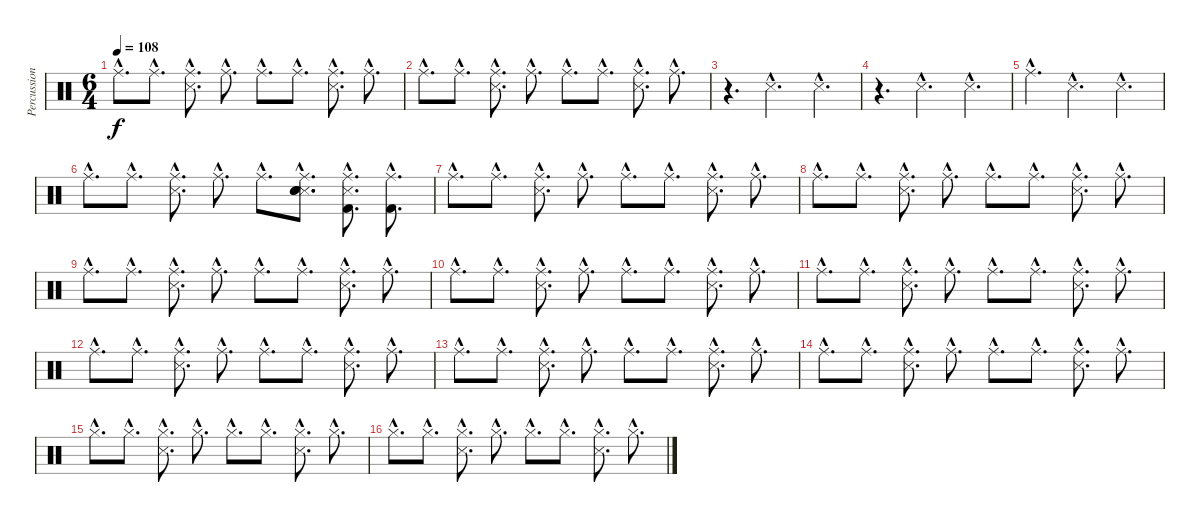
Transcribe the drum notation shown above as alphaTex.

\track ("Percussion" "Percussion") {instrument percussion}
\staff {score}
\articulation defaults
\ts (6 4)
\tempo 108
\clef neutral
\ks c "Ride (middle)"{hac}.8{d dy f} "Ride (middle)"{hac}.8{d}
("Ride (middle)"{hac} "Snare (side stick) 3"{hac}).8{d} "Ride (middle)"{hac}.8{d} "Ride (middle)"{hac}.8{d} "Ride (middle)"{hac}.8{d} ("Ride (middle)"{hac} "Snare (side stick) 3"{hac}).8{d} "Ride (middle)"{hac}.8{d} |
"Ride (middle)"{hac}.8{d} "Ride (middle)"{hac}.8{d} ("Ride (middle)"{hac} "Snare (side stick) 3"{hac}).8{d} "Ride (middle)"{hac}.8{d} "Ride (middle)"{hac}.8{d} "Ride (middle)"{hac}.8{d} ("Ride (middle)"{hac} "Snare (side stick) 3"{hac}).8{d} "Ride (middle)"{hac}.8{d} |
r.4{d} "Snare (side stick) 3"{hac}.2{d} "Snare (side stick) 3"{hac}.4{d} |
r.4{d} "Snare (side stick) 3"{hac}.2{d} "Snare (side stick) 3"{hac}.4{d} |
"Ride (middle)"{hac}.4{d} "Snare (side stick) 3"{hac}.2{d} "Snare (side stick) 3"{hac}.4{d} |
"Ride (middle)"{hac}.8{d} "Ride (middle)"{hac}.8{d} ("Ride (middle)"{hac} "Snare (side stick) 3"{hac}).8{d} "Ride (middle)"{hac}.8{d} "Ride (middle)"{hac}.8{d} ("Ride (middle)"{hac} "Snare (side stick) 3"{hac} "Snare (hit) 2"{hac} "Electric Snare (hit)"{hac}).8{d} ("Ride (middle)"{hac} "Snare (side stick) 3"{hac} "Kick (hit) 2"{hac}).8{d} ("Ride (middle)"{hac} "Kick (hit) 2"{hac}).8{d} |
"Ride (middle)"{hac}.8{d} "Ride (middle)"{hac}.8{d} ("Ride (middle)"{hac} "Snare (side stick) 3"{hac}).8{d} "Ride (middle)"{hac}.8{d} "Ride (middle)"{hac}.8{d} "Ride (middle)"{hac}.8{d} ("Ride (middle)"{hac} "Snare (side stick) 3"{hac}).8{d} "Ride (middle)"{hac}.8{d} |
"Ride (middle)"{hac}.8{d} "Ride (middle)"{hac}.8{d} ("Ride (middle)"{hac} "Snare (side stick) 3"{hac}).8{d} "Ride (middle)"{hac}.8{d} "Ride (middle)"{hac}.8{d} "Ride (middle)"{hac}.8{d} ("Ride (middle)"{hac} "Snare (side stick) 3"{hac}).8{d} "Ride (middle)"{hac}.8{d} |
"Ride (middle)"{hac}.8{d} "Ride (middle)"{hac}.8{d} ("Ride (middle)"{hac} "Snare (side stick) 3"{hac}).8{d} "Ride (middle)"{hac}.8{d} "Ride (middle)"{hac}.8{d} "Ride (middle)"{hac}.8{d} ("Ride (middle)"{hac} "Snare (side stick) 3"{hac}).8{d} "Ride (middle)"{hac}.8{d} |
"Ride (middle)"{hac}.8{d} "Ride (middle)"{hac}.8{d} ("Ride (middle)"{hac} "Snare (side stick) 3"{hac}).8{d} "Ride (middle)"{hac}.8{d} "Ride (middle)"{hac}.8{d} "Ride (middle)"{hac}.8{d} ("Ride (middle)"{hac} "Snare (side stick) 3"{hac}).8{d} "Ride (middle)"{hac}.8{d} |
"Ride (middle)"{hac}.8{d} "Ride (middle)"{hac}.8{d} ("Ride (middle)"{hac} "Snare (side stick) 3"{hac}).8{d} "Ride (middle)"{hac}.8{d} "Ride (middle)"{hac}.8{d} "Ride (middle)"{hac}.8{d} ("Ride (middle)"{hac} "Snare (side stick) 3"{hac}).8{d} "Ride (middle)"{hac}.8{d} |
"Ride (middle)"{hac}.8{d} "Ride (middle)"{hac}.8{d} ("Ride (middle)"{hac} "Snare (side stick) 3"{hac}).8{d} "Ride (middle)"{hac}.8{d} "Ride (middle)"{hac}.8{d} "Ride (middle)"{hac}.8{d} ("Ride (middle)"{hac} "Snare (side stick) 3"{hac}).8{d} "Ride (middle)"{hac}.8{d} |
"Ride (middle)"{hac}.8{d} "Ride (middle)"{hac}.8{d} ("Ride (middle)"{hac} "Snare (side stick) 3"{hac}).8{d} "Ride (middle)"{hac}.8{d} "Ride (middle)"{hac}.8{d} "Ride (middle)"{hac}.8{d} ("Ride (middle)"{hac} "Snare (side stick) 3"{hac}).8{d} "Ride (middle)"{hac}.8{d} |
"Ride (middle)"{hac}.8{d} "Ride (middle)"{hac}.8{d} ("Ride (middle)"{hac} "Snare (side stick) 3"{hac}).8{d} "Ride (middle)"{hac}.8{d} "Ride (middle)"{hac}.8{d} "Ride (middle)"{hac}.8{d} ("Ride (middle)"{hac} "Snare (side stick) 3"{hac}).8{d} "Ride (middle)"{hac}.8{d} |
"Hi-Hat (closed)"{hac}.8{d} "Hi-Hat (closed)"{hac}.8{d} ("Hi-Hat (closed)"{hac} "Snare (side stick) 3"{hac}).8{d} "Hi-Hat (closed)"{hac}.8{d} "Hi-Hat (closed)"{hac}.8{d} "Hi-Hat (closed)"{hac}.8{d} ("Hi-Hat (closed)"{hac} "Snare (side stick) 3"{hac}).8{d} "Hi-Hat (closed)"{hac}.8{d} |
"Hi-Hat (closed)"{hac}.8{d} "Hi-Hat (closed)"{hac}.8{d} ("Hi-Hat (closed)"{hac} "Snare (side stick) 3"{hac}).8{d} "Hi-Hat (closed)"{hac}.8{d} "Hi-Hat (closed)"{hac}.8{d} "Hi-Hat (closed)"{hac}.8{d} ("Hi-Hat (closed)"{hac} "Snare (side stick) 3"{hac}).8{d} "Hi-Hat (closed)"{hac}.8{d}
